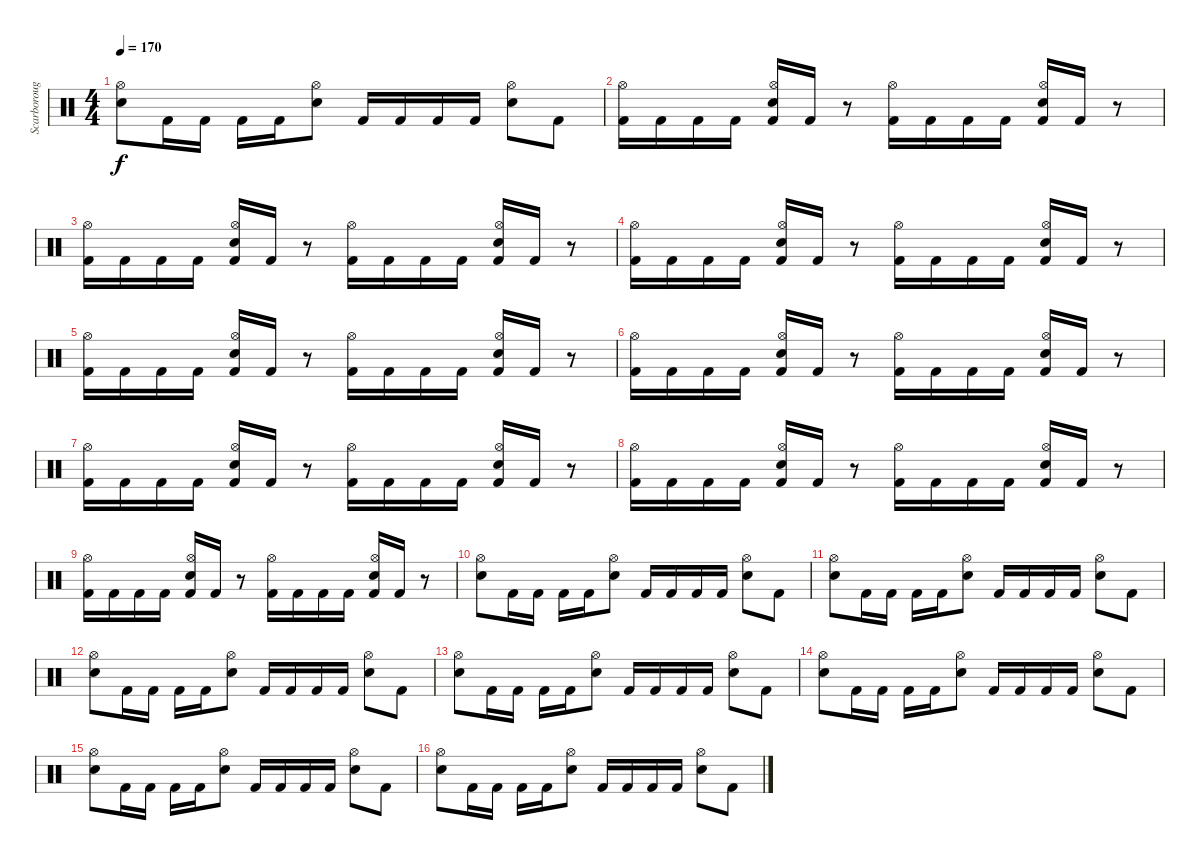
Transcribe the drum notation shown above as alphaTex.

\track ("Scarborough" "Scarboroug") {instrument percussion}
\staff {score}
\articulation defaults
\ts (4 4)
\tempo 170
\clef neutral
\ks c
("Snare (hit) 2" "Hi-Hat (open)").8{dy f} "Kick (hit) 2".16 "Kick (hit) 2".16 "Kick (hit) 2".16 "Kick (hit) 2".16 ("Snare (hit) 2" "Hi-Hat (open)").8 "Kick (hit) 2".16 "Kick (hit) 2".16 "Kick (hit) 2".16 "Kick (hit) 2".16 ("Snare (hit) 2" "Hi-Hat (open)").8 "Kick (hit) 2".8 |
("Hi-Hat (open)" "Kick (hit) 2").16 "Kick (hit) 2".16 "Kick (hit) 2".16 "Kick (hit) 2".16 ("Hi-Hat (open)" "Kick (hit) 2" "Snare (hit) 2").16 "Kick (hit) 2".16 r.8 ("Hi-Hat (open)" "Kick (hit) 2").16 "Kick (hit) 2".16 "Kick (hit) 2".16 "Kick (hit) 2".16 ("Hi-Hat (open)" "Kick (hit) 2" "Snare (hit) 2").16 "Kick (hit) 2".16 r.8 |
("Hi-Hat (open)" "Kick (hit) 2").16 "Kick (hit) 2".16 "Kick (hit) 2".16 "Kick (hit) 2".16 ("Hi-Hat (open)" "Kick (hit) 2" "Snare (hit) 2").16 "Kick (hit) 2".16 r.8 ("Hi-Hat (open)" "Kick (hit) 2").16 "Kick (hit) 2".16 "Kick (hit) 2".16 "Kick (hit) 2".16 ("Hi-Hat (open)" "Kick (hit) 2" "Snare (hit) 2").16 "Kick (hit) 2".16 r.8 |
("Hi-Hat (open)" "Kick (hit) 2").16 "Kick (hit) 2".16 "Kick (hit) 2".16 "Kick (hit) 2".16 ("Hi-Hat (open)" "Kick (hit) 2" "Snare (hit) 2").16 "Kick (hit) 2".16 r.8 ("Hi-Hat (open)" "Kick (hit) 2").16 "Kick (hit) 2".16 "Kick (hit) 2".16 "Kick (hit) 2".16 ("Hi-Hat (open)" "Kick (hit) 2" "Snare (hit) 2").16 "Kick (hit) 2".16 r.8 |
("Hi-Hat (open)" "Kick (hit) 2").16 "Kick (hit) 2".16 "Kick (hit) 2".16 "Kick (hit) 2".16 ("Hi-Hat (open)" "Kick (hit) 2" "Snare (hit) 2").16 "Kick (hit) 2".16 r.8 ("Hi-Hat (open)" "Kick (hit) 2").16 "Kick (hit) 2".16 "Kick (hit) 2".16 "Kick (hit) 2".16 ("Hi-Hat (open)" "Kick (hit) 2" "Snare (hit) 2").16 "Kick (hit) 2".16 r.8 |
("Hi-Hat (open)" "Kick (hit) 2").16 "Kick (hit) 2".16 "Kick (hit) 2".16 "Kick (hit) 2".16 ("Hi-Hat (open)" "Kick (hit) 2" "Snare (hit) 2").16 "Kick (hit) 2".16 r.8 ("Hi-Hat (open)" "Kick (hit) 2").16 "Kick (hit) 2".16 "Kick (hit) 2".16 "Kick (hit) 2".16 ("Hi-Hat (open)" "Kick (hit) 2" "Snare (hit) 2").16 "Kick (hit) 2".16 r.8 |
("Hi-Hat (open)" "Kick (hit) 2").16 "Kick (hit) 2".16 "Kick (hit) 2".16 "Kick (hit) 2".16 ("Hi-Hat (open)" "Kick (hit) 2" "Snare (hit) 2").16 "Kick (hit) 2".16 r.8 ("Hi-Hat (open)" "Kick (hit) 2").16 "Kick (hit) 2".16 "Kick (hit) 2".16 "Kick (hit) 2".16 ("Hi-Hat (open)" "Kick (hit) 2" "Snare (hit) 2").16 "Kick (hit) 2".16 r.8 |
("Hi-Hat (open)" "Kick (hit) 2").16 "Kick (hit) 2".16 "Kick (hit) 2".16 "Kick (hit) 2".16 ("Hi-Hat (open)" "Kick (hit) 2" "Snare (hit) 2").16 "Kick (hit) 2".16 r.8 ("Hi-Hat (open)" "Kick (hit) 2").16 "Kick (hit) 2".16 "Kick (hit) 2".16 "Kick (hit) 2".16 ("Hi-Hat (open)" "Kick (hit) 2" "Snare (hit) 2").16 "Kick (hit) 2".16 r.8 |
("Hi-Hat (open)" "Kick (hit) 2").16 "Kick (hit) 2".16 "Kick (hit) 2".16 "Kick (hit) 2".16 ("Hi-Hat (open)" "Kick (hit) 2" "Snare (hit) 2").16 "Kick (hit) 2".16 r.8 ("Hi-Hat (open)" "Kick (hit) 2").16 "Kick (hit) 2".16 "Kick (hit) 2".16 "Kick (hit) 2".16 ("Hi-Hat (open)" "Kick (hit) 2" "Snare (hit) 2").16 "Kick (hit) 2".16 r.8 |
("Snare (hit) 2" "Hi-Hat (open)").8 "Kick (hit) 2".16 "Kick (hit) 2".16 "Kick (hit) 2".16 "Kick (hit) 2".16 ("Snare (hit) 2" "Hi-Hat (open)").8 "Kick (hit) 2".16 "Kick (hit) 2".16 "Kick (hit) 2".16 "Kick (hit) 2".16 ("Snare (hit) 2" "Hi-Hat (open)").8 "Kick (hit) 2".8 |
("Snare (hit) 2" "Hi-Hat (open)").8 "Kick (hit) 2".16 "Kick (hit) 2".16 "Kick (hit) 2".16 "Kick (hit) 2".16 ("Snare (hit) 2" "Hi-Hat (open)").8 "Kick (hit) 2".16 "Kick (hit) 2".16 "Kick (hit) 2".16 "Kick (hit) 2".16 ("Snare (hit) 2" "Hi-Hat (open)").8 "Kick (hit) 2".8 |
("Snare (hit) 2" "Hi-Hat (open)").8 "Kick (hit) 2".16 "Kick (hit) 2".16 "Kick (hit) 2".16 "Kick (hit) 2".16 ("Snare (hit) 2" "Hi-Hat (open)").8 "Kick (hit) 2".16 "Kick (hit) 2".16 "Kick (hit) 2".16 "Kick (hit) 2".16 ("Snare (hit) 2" "Hi-Hat (open)").8 "Kick (hit) 2".8 |
("Snare (hit) 2" "Hi-Hat (open)").8 "Kick (hit) 2".16 "Kick (hit) 2".16 "Kick (hit) 2".16 "Kick (hit) 2".16 ("Snare (hit) 2" "Hi-Hat (open)").8 "Kick (hit) 2".16 "Kick (hit) 2".16 "Kick (hit) 2".16 "Kick (hit) 2".16 ("Snare (hit) 2" "Hi-Hat (open)").8 "Kick (hit) 2".8 |
("Snare (hit) 2" "Hi-Hat (open)").8 "Kick (hit) 2".16 "Kick (hit) 2".16 "Kick (hit) 2".16 "Kick (hit) 2".16 ("Snare (hit) 2" "Hi-Hat (open)").8 "Kick (hit) 2".16 "Kick (hit) 2".16 "Kick (hit) 2".16 "Kick (hit) 2".16 ("Snare (hit) 2" "Hi-Hat (open)").8 "Kick (hit) 2".8 |
("Snare (hit) 2" "Hi-Hat (open)").8 "Kick (hit) 2".16 "Kick (hit) 2".16 "Kick (hit) 2".16 "Kick (hit) 2".16 ("Snare (hit) 2" "Hi-Hat (open)").8 "Kick (hit) 2".16 "Kick (hit) 2".16 "Kick (hit) 2".16 "Kick (hit) 2".16 ("Snare (hit) 2" "Hi-Hat (open)").8 "Kick (hit) 2".8 |
("Snare (hit) 2" "Hi-Hat (open)").8 "Kick (hit) 2".16 "Kick (hit) 2".16 "Kick (hit) 2".16 "Kick (hit) 2".16 ("Snare (hit) 2" "Hi-Hat (open)").8 "Kick (hit) 2".16 "Kick (hit) 2".16 "Kick (hit) 2".16 "Kick (hit) 2".16 ("Snare (hit) 2" "Hi-Hat (open)").8 "Kick (hit) 2".8
